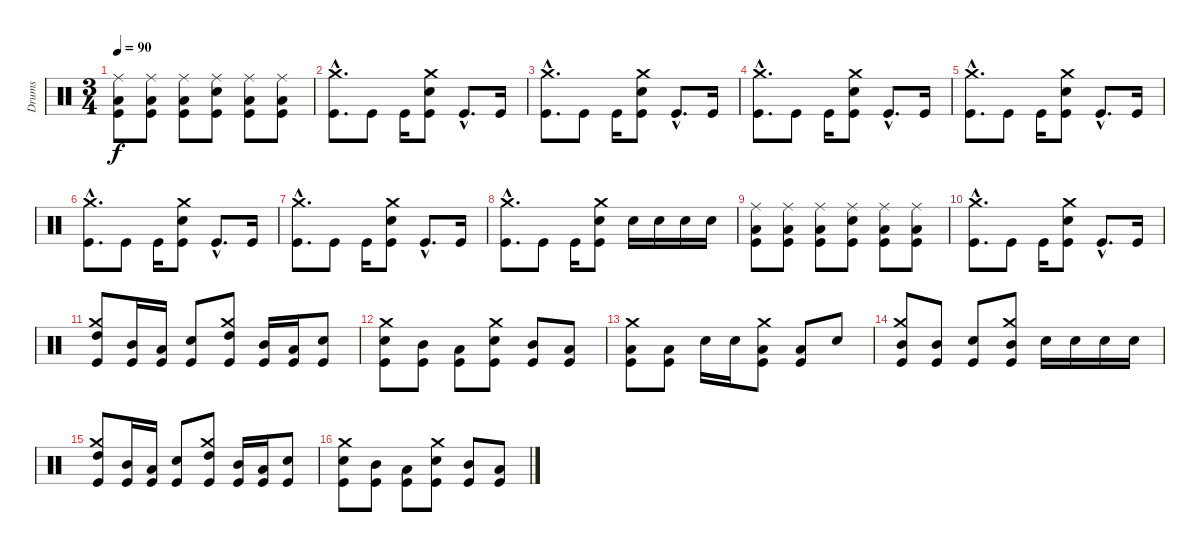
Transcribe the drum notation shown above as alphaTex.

\track ("Drums" "Drums") {instrument percussion}
\staff {score}
\articulation defaults
\ts (3 4)
\tempo 90
\clef neutral
\ks c
("Ride (middle)" "Low Tom (hit)" "Kick (hit)").8{dy f} ("Ride (middle)" "Low Tom (hit)" "Kick (hit)").8 ("Ride (middle)" "Low Tom (hit)" "Kick (hit)").8 ("Ride (middle)" "Snare (hit) 2" "Kick (hit)").8 ("Ride (middle)" "Low Tom (hit)" "Kick (hit)").8 ("Ride (middle)" "Low Tom (hit)" "Kick (hit)").8 |
("Crash medium (hit)"{hac} "Kick (hit)"{hac}).8{d} "Kick (hit)".8 "Kick (hit)".16 ("Crash medium (hit)" "Snare (hit) 2" "Kick (hit)").8 "Kick (hit)"{hac}.8{d} "Kick (hit)".16 |
("Crash medium (hit)"{hac} "Kick (hit)"{hac}).8{d} "Kick (hit)".8 "Kick (hit)".16 ("Crash medium (hit)" "Snare (hit) 2" "Kick (hit)").8 "Kick (hit)"{hac}.8{d} "Kick (hit)".16 |
("Crash medium (hit)"{hac} "Kick (hit)"{hac}).8{d} "Kick (hit)".8 "Kick (hit)".16 ("Crash medium (hit)" "Snare (hit) 2" "Kick (hit)").8 "Kick (hit)"{hac}.8{d} "Kick (hit)".16 |
("Crash medium (hit)"{hac} "Kick (hit)"{hac}).8{d} "Kick (hit)".8 "Kick (hit)".16 ("Crash medium (hit)" "Snare (hit) 2" "Kick (hit)").8 "Kick (hit)"{hac}.8{d} "Kick (hit)".16 |
("Crash medium (hit)"{hac} "Kick (hit)"{hac}).8{d} "Kick (hit)".8 "Kick (hit)".16 ("Crash medium (hit)" "Snare (hit) 2" "Kick (hit)").8 "Kick (hit)"{hac}.8{d} "Kick (hit)".16 |
("Crash medium (hit)"{hac} "Kick (hit)"{hac}).8{d} "Kick (hit)".8 "Kick (hit)".16 ("Crash medium (hit)" "Snare (hit) 2" "Kick (hit)").8 "Kick (hit)"{hac}.8{d} "Kick (hit)".16 |
("Crash medium (hit)"{hac} "Kick (hit)"{hac}).8{d} "Kick (hit)".8 "Kick (hit)".16 ("Crash medium (hit)" "Snare (hit) 2" "Kick (hit)").8 "Snare (hit) 2".16 "Snare (hit) 2".16 "Snare (hit) 2".16 "Snare (hit) 2".16 |
("Ride (middle)" "Low Tom (hit)" "Kick (hit)").8 ("Ride (middle)" "Low Tom (hit)" "Kick (hit)").8 ("Ride (middle)" "Low Tom (hit)" "Kick (hit)").8 ("Ride (middle)" "Snare (hit) 2" "Kick (hit)").8 ("Ride (middle)" "Low Tom (hit)" "Kick (hit)").8 ("Ride (middle)" "Low Tom (hit)" "Kick (hit)").8 |
("Crash medium (hit)"{hac} "Kick (hit)"{hac}).8{d} "Kick (hit)".8 "Kick (hit)".16 ("Crash medium (hit)" "Snare (hit) 2" "Kick (hit)").8 "Kick (hit)"{hac}.8{d} "Kick (hit)".16 |
("Crash medium (hit)" "High Tom (hit)" "Kick (hit)").8 ("Mid Tom (hit)" "Kick (hit)").16 ("Low Tom (hit)" "Kick (hit)").16 ("Snare (hit) 2" "Kick (hit)").8 ("Crash medium (hit)" "High Tom (hit)" "Kick (hit)").8 ("Mid Tom (hit)" "Kick (hit)").16 ("Low Tom (hit)" "Kick (hit)").16 ("Snare (hit) 2" "Kick (hit)").8 |
("Crash medium (hit)" "Snare (hit) 2" "Kick (hit)").8 ("Mid Tom (hit)" "Kick (hit)").8 ("Low Tom (hit)" "Kick (hit)").8 ("Crash medium (hit)" "Snare (hit) 2" "Kick (hit)").8 ("Mid Tom (hit)" "Kick (hit)").8 ("Low Tom (hit)" "Kick (hit)").8 |
("Crash medium (hit)" "Low Tom (hit)" "Kick (hit)").8 ("Low Tom (hit)" "Kick (hit)").8 "Snare (hit) 2".16 "Snare (hit) 2".16 ("Crash medium (hit)" "Low Tom (hit)" "Kick (hit)").8 ("Low Tom (hit)" "Kick (hit)").8 "Snare (hit) 2".8 |
("Crash medium (hit)" "Mid Tom (hit)" "Kick (hit)").8 ("Mid Tom (hit)" "Kick (hit)").8 ("Snare (hit) 2" "Kick (hit)").8 ("Crash medium (hit)" "Mid Tom (hit)" "Kick (hit)").8 "Snare (hit) 2".16 "Snare (hit) 2".16 "Snare (hit) 2".16 "Snare (hit) 2".16 |
("Crash medium (hit)" "High Tom (hit)" "Kick (hit)").8 ("Mid Tom (hit)" "Kick (hit)").16 ("Low Tom (hit)" "Kick (hit)").16 ("Snare (hit) 2" "Kick (hit)").8 ("Crash medium (hit)" "High Tom (hit)" "Kick (hit)").8 ("Mid Tom (hit)" "Kick (hit)").16 ("Low Tom (hit)" "Kick (hit)").16 ("Snare (hit) 2" "Kick (hit)").8 |
("Crash medium (hit)" "Snare (hit) 2" "Kick (hit)").8 ("Mid Tom (hit)" "Kick (hit)").8 ("Low Tom (hit)" "Kick (hit)").8 ("Crash medium (hit)" "Snare (hit) 2" "Kick (hit)").8 ("Mid Tom (hit)" "Kick (hit)").8 ("Low Tom (hit)" "Kick (hit)").8
